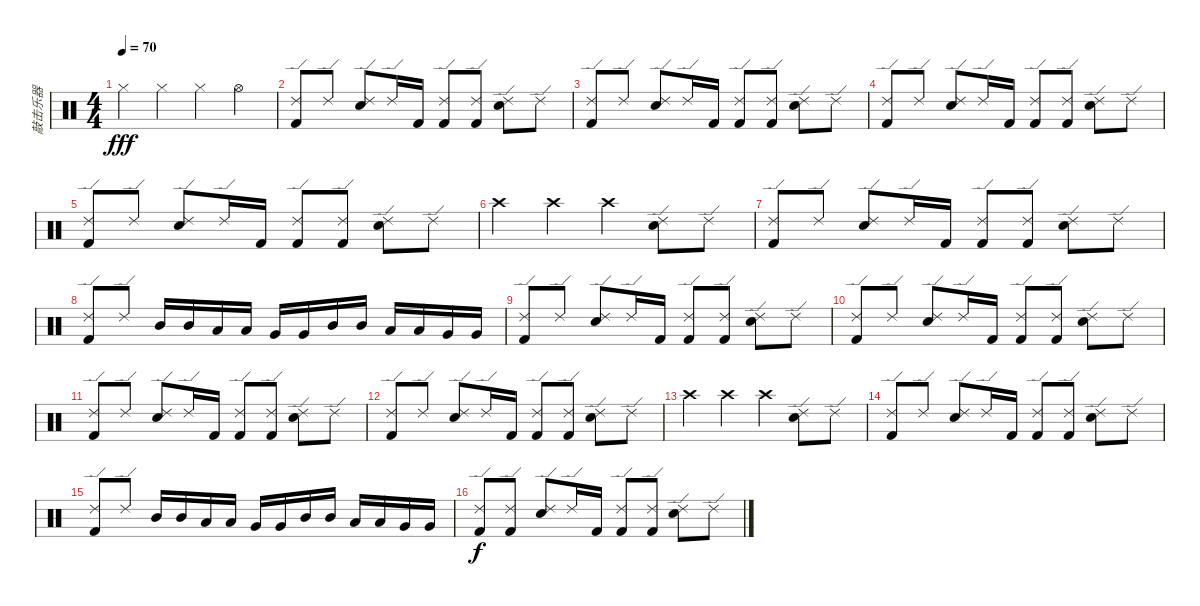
\track ("敲击乐器" "敲击乐器") {instrument percussion}
\staff {score}
\articulation defaults
\ts (4 4)
\tempo 70
\clef neutral
\ks c "Hi-Hat (closed)".4{dy fff} "Hi-Hat (closed)".4 "Hi-Hat (closed)".4 "Hi-Hat (open)".4
|
("Ride (edge) 2" "Kick (hit) 2").8 "Ride (edge) 2".8 ("Ride (edge) 2" "Snare (hit) 2").8 "Ride (edge) 2".16 "Kick (hit) 2".16 ("Ride (edge) 2" "Kick (hit) 2").8 ("Ride (edge) 2" "Kick (hit) 2").8 ("Ride (edge) 2" "Snare (hit) 2").8 "Ride (edge) 2".8 |
("Ride (edge) 2" "Kick (hit) 2").8 "Ride (edge) 2".8 ("Ride (edge) 2" "Snare (hit) 2").8 "Ride (edge) 2".16 "Kick (hit) 2".16 ("Ride (edge) 2" "Kick (hit) 2").8 ("Ride (edge) 2" "Kick (hit) 2").8 ("Ride (edge) 2" "Snare (hit) 2").8 "Ride (edge) 2".8 |
("Ride (edge) 2" "Kick (hit) 2").8 "Ride (edge) 2".8 ("Ride (edge) 2" "Snare (hit) 2").8 "Ride (edge) 2".16 "Kick (hit) 2".16 ("Ride (edge) 2" "Kick (hit) 2").8 ("Ride (edge) 2" "Kick (hit) 2").8 ("Ride (edge) 2" "Snare (hit) 2").8 "Ride (edge) 2".8 |
("Ride (edge) 2" "Kick (hit) 2").8 "Ride (edge) 2".8 ("Ride (edge) 2" "Snare (hit) 2").8 "Ride (edge) 2".16 "Kick (hit) 2".16 ("Ride (edge) 2" "Kick (hit) 2").8 ("Ride (edge) 2" "Kick (hit) 2").8 ("Ride (edge) 2" "Snare (hit) 2").8 "Ride (edge) 2".8 |
"Crash high (hit)".4 "Crash high (hit)".4 "Crash high (hit)".4 ("Ride (edge) 2" "Snare (hit) 2").8 "Ride (edge) 2".8 |
("Ride (edge) 2" "Kick (hit) 2").8 "Ride (edge) 2".8 ("Ride (edge) 2" "Snare (hit) 2").8 "Ride (edge) 2".16 "Kick (hit) 2".16 ("Ride (edge) 2" "Kick (hit) 2").8 ("Ride (edge) 2" "Kick (hit) 2").8 ("Ride (edge) 2" "Snare (hit) 2").8 "Ride (edge) 2".8 |
("Ride (edge) 2" "Kick (hit) 2").8 "Ride (edge) 2".8 "Mid Tom (hit)".16 "Mid Tom (hit)".16 "Low Tom (hit)".16 "Low Tom (hit)".16 "Very Low Tom (hit)".16 "Very Low Tom (hit)".16 "Mid Tom (hit)".16 "Mid Tom (hit)".16 "Low Tom (hit)".16 "Low Tom (hit)".16 "Very Low Tom (hit)".16 "Very Low Tom (hit)".16 |
("Ride (edge) 2" "Kick (hit) 2").8 "Ride (edge) 2".8 ("Ride (edge) 2" "Snare (hit) 2").8 "Ride (edge) 2".16 "Kick (hit) 2".16 ("Ride (edge) 2" "Kick (hit) 2").8 ("Ride (edge) 2" "Kick (hit) 2").8 ("Ride (edge) 2" "Snare (hit) 2").8 "Ride (edge) 2".8 |
("Ride (edge) 2" "Kick (hit) 2").8 "Ride (edge) 2".8 ("Ride (edge) 2" "Snare (hit) 2").8 "Ride (edge) 2".16 "Kick (hit) 2".16 ("Ride (edge) 2" "Kick (hit) 2").8 ("Ride (edge) 2" "Kick (hit) 2").8 ("Ride (edge) 2" "Snare (hit) 2").8 "Ride (edge) 2".8 |
("Ride (edge) 2" "Kick (hit) 2").8 "Ride (edge) 2".8 ("Ride (edge) 2" "Snare (hit) 2").8 "Ride (edge) 2".16 "Kick (hit) 2".16 ("Ride (edge) 2" "Kick (hit) 2").8 ("Ride (edge) 2" "Kick (hit) 2").8 ("Ride (edge) 2" "Snare (hit) 2").8 "Ride (edge) 2".8 |
("Ride (edge) 2" "Kick (hit) 2").8 "Ride (edge) 2".8 ("Ride (edge) 2" "Snare (hit) 2").8 "Ride (edge) 2".16 "Kick (hit) 2".16 ("Ride (edge) 2" "Kick (hit) 2").8 ("Ride (edge) 2" "Kick (hit) 2").8 ("Ride (edge) 2" "Snare (hit) 2").8 "Ride (edge) 2".8 |
"Crash high (hit)".4 "Crash high (hit)".4 "Crash high (hit)".4 ("Ride (edge) 2" "Snare (hit) 2").8 "Ride (edge) 2".8 |
("Ride (edge) 2" "Kick (hit) 2").8 "Ride (edge) 2".8 ("Ride (edge) 2" "Snare (hit) 2").8 "Ride (edge) 2".16 "Kick (hit) 2".16 ("Ride (edge) 2" "Kick (hit) 2").8 ("Ride (edge) 2" "Kick (hit) 2").8 ("Ride (edge) 2" "Snare (hit) 2").8 "Ride (edge) 2".8 |
("Ride (edge) 2" "Kick (hit) 2").8 "Ride (edge) 2".8 "Mid Tom (hit)".16 "Mid Tom (hit)".16 "Low Tom (hit)".16 "Low Tom (hit)".16 "Very Low Tom (hit)".16 "Very Low Tom (hit)".16 "Mid Tom (hit)".16 "Mid Tom (hit)".16 "Low Tom (hit)".16 "Low Tom (hit)".16 "Very Low Tom (hit)".16 "Very Low Tom (hit)".16 |
("Ride (edge) 2" "Kick (hit) 2").8{dy f} ("Ride (edge) 2" "Kick (hit) 2").8 ("Ride (edge) 2" "Snare (hit) 2").8 "Ride (edge) 2".16 "Kick (hit) 2".16 ("Ride (edge) 2" "Kick (hit) 2").8 ("Ride (edge) 2" "Kick (hit) 2").8 ("Ride (edge) 2" "Snare (hit) 2").8 "Ride (edge) 2".8
